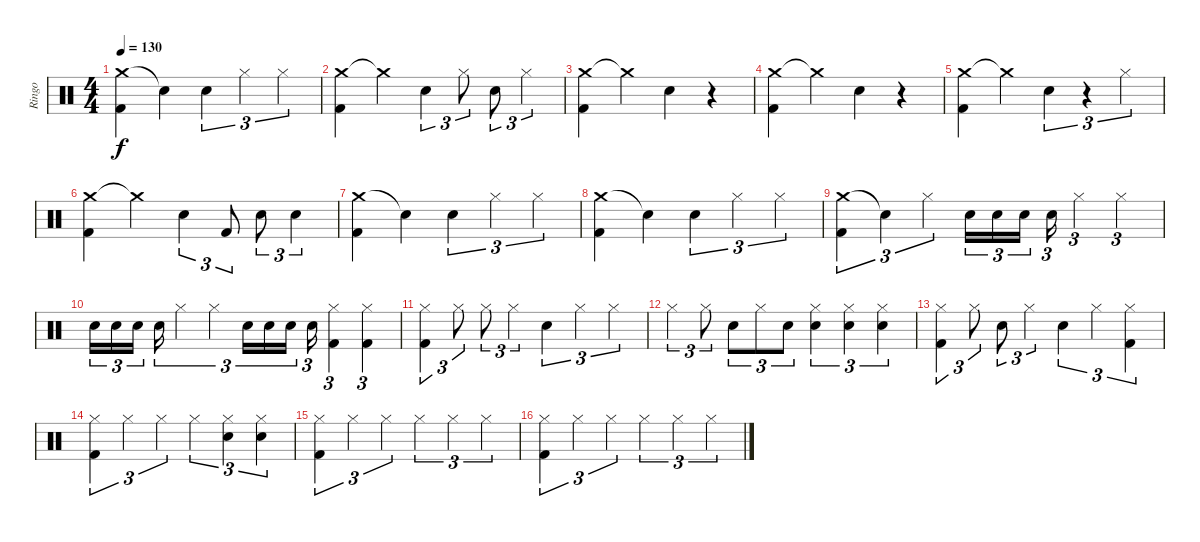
\track ("Ringo" "Ringo") {instrument percussion}
\staff {score}
\articulation defaults
\ts (4 4)
\tempo 130
\clef neutral
\ks c
("Crash medium (hit)" "Kick (hit) 2").4{dy f} "Snare (hit)"{t}.4 "Snare (hit) 2".4{tu (3 2)} "Hi-Hat (closed)".4{tu (3 2)} "Hi-Hat (closed)".4{tu (3 2)} |
("Crash medium (hit)" "Kick (hit) 2").4 "Crash medium (hit)"{t}.4 "Snare (hit) 2".4{tu (3 2)} "Hi-Hat (closed)".8{tu (3 2)} "Snare (hit) 2".8{tu (3 2)} "Hi-Hat (closed)".4{tu (3 2)} |
("Crash medium (hit)" "Kick (hit) 2").4 "Crash medium (hit)"{t}.4 "Snare (hit) 2".4 r.4 |
("Crash medium (hit)" "Kick (hit) 2").4 "Crash medium (hit)"{t}.4 "Snare (hit) 2".4 r.4 |
("Crash medium (hit)" "Kick (hit) 2").4 "Crash medium (hit)"{t}.4 "Snare (hit) 2".4{tu (3 2)} r.4{tu (3 2)} "Hi-Hat (closed)".4{tu (3 2)} |
("Crash medium (hit)" "Kick (hit) 2").4 "Crash medium (hit)"{t}.4 "Snare (hit) 2".4{tu (3 2)} "Kick (hit) 2".8{tu (3 2)} "Snare (hit) 2".8{tu (3 2)} "Snare (hit) 2".4{tu (3 2)} |
("Crash medium (hit)" "Kick (hit) 2").4 "Snare (hit)"{t}.4 "Snare (hit) 2".4{tu (3 2)} "Hi-Hat (closed)".4{tu (3 2)} "Hi-Hat (closed)".4{tu (3 2)} |
("Crash medium (hit)" "Kick (hit) 2").4 "Snare (hit)"{t}.4 "Snare (hit) 2".4{tu (3 2)} "Hi-Hat (closed)".4{tu (3 2)} "Hi-Hat (closed)".4{tu (3 2)} |
("Crash medium (hit)" "Kick (hit) 2").4{tu (3 2)} "Snare (hit)"{t}.4{tu (3 2)} "Hi-Hat (closed)".4{tu (3 2)} "Snare (hit) 2".16{tu (3 2)} "Snare (hit) 2".16{tu (3 2)} "Snare (hit) 2".16{tu (3 2)} "Snare (hit) 2".16{tu (3 2)} "Hi-Hat (closed)".4{tu (3 2)} "Hi-Hat (closed)".4{tu (3 2)} |
"Snare (hit) 2".16{tu (3 2)} "Snare (hit) 2".16{tu (3 2)} "Snare (hit) 2".16{tu (3 2)} "Snare (hit) 2".16{tu (3 2)} "Hi-Hat (closed)".4{tu (3 2)} "Hi-Hat (closed)".4{tu (3 2)} "Snare (hit) 2".16{tu (3 2)} "Snare (hit) 2".16{tu (3 2)} "Snare (hit) 2".16{tu (3 2)} "Snare (hit) 2".16{tu (3 2)} ("Hi-Hat (closed)" "Kick (hit) 2").4{tu (3 2)} ("Hi-Hat (closed)" "Kick (hit) 2").4{tu (3 2)} |
("Hi-Hat (closed)" "Kick (hit) 2").4{tu (3 2)} "Hi-Hat (closed)".8{tu (3 2)} "Hi-Hat (closed)".8{tu (3 2)} "Hi-Hat (closed)".4{tu (3 2)} "Snare (hit) 2".4{tu (3 2)} "Hi-Hat (closed)".4{tu (3 2)} "Hi-Hat (closed)".4{tu (3 2)} |
"Hi-Hat (closed)".4{tu (3 2)} "Hi-Hat (closed)".8{tu (3 2)} "Snare (hit) 2".8{tu (3 2)} "Hi-Hat (closed)".8{tu (3 2)} "Snare (hit) 2".8{tu (3 2)} ("Hi-Hat (closed)" "Snare (hit) 2").4{tu (3 2)} ("Hi-Hat (closed)" "Snare (hit) 2").4{tu (3 2)} ("Hi-Hat (closed)" "Snare (hit) 2").4{tu (3 2)} |
("Hi-Hat (closed)" "Kick (hit) 2").4{tu (3 2)} "Hi-Hat (closed)".8{tu (3 2)} "Snare (hit) 2".8{tu (3 2)} "Hi-Hat (closed)".4{tu (3 2)} "Snare (hit) 2".4{tu (3 2)} "Hi-Hat (closed)".4{tu (3 2)} ("Hi-Hat (closed)" "Kick (hit) 2").4{tu (3 2)} |
("Hi-Hat (closed)" "Kick (hit) 2").4{tu (3 2)} "Hi-Hat (closed)".4{tu (3 2)} "Hi-Hat (closed)".4{tu (3 2)} "Hi-Hat (closed)".4{tu (3 2)} ("Hi-Hat (closed)" "Snare (hit) 2").4{tu (3 2)} ("Hi-Hat (closed)" "Snare (hit) 2").4{tu (3 2)} |
("Hi-Hat (closed)" "Kick (hit) 2").4{tu (3 2)} "Hi-Hat (closed)".4{tu (3 2)} "Hi-Hat (closed)".4{tu (3 2)} "Hi-Hat (closed)".4{tu (3 2)} "Hi-Hat (closed)".4{tu (3 2)} "Hi-Hat (closed)".4{tu (3 2)} |
("Hi-Hat (closed)" "Kick (hit) 2").4{tu (3 2) volume 10} "Hi-Hat (closed)".4{tu (3 2)} "Hi-Hat (closed)".4{tu (3 2)} "Hi-Hat (closed)".4{tu (3 2)} "Hi-Hat (closed)".4{tu (3 2)} "Hi-Hat (closed)".4{tu (3 2)}
